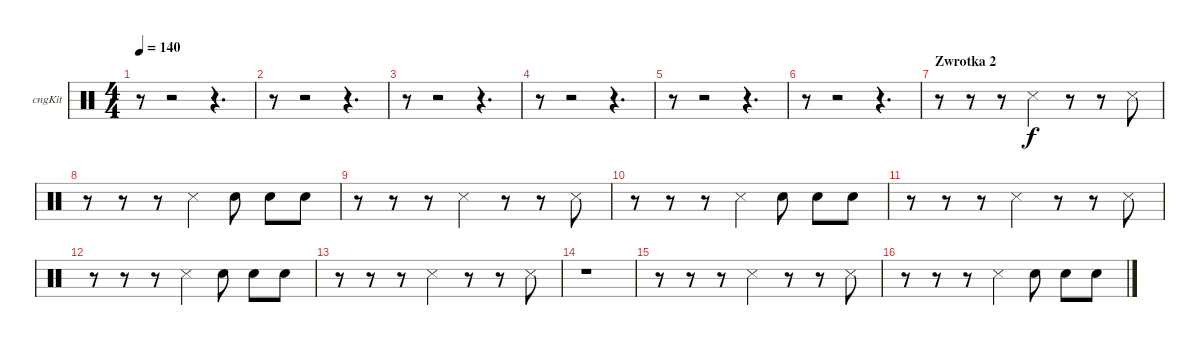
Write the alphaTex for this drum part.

\bracketExtendMode groupsimilarinstruments
\firstSystemTrackNameOrientation horizontal
\otherSystemsTrackNameOrientation horizontal
\track ("Congas" "cngKit") {instrument percussion}
\staff {score}
\articulation defaults
\ts (4 4)
\tempo 140
\clef neutral
\ks c
r.8{dy f} r.2 r.4{d} |
r.8 r.2 r.4{d} |
r.8 r.2 r.4{d} |
r.8 r.2 r.4{d} |
r.8 r.2 r.4{d} |
r.8 r.2 r.4{d} |
\section ("" "Zwrotka 2")
r.8 r.8 r.8 "Snare (side stick) 3".4 r.8 r.8 "Snare (side stick) 3".8 |
r.8 r.8 r.8 "Snare (side stick) 3".4 "Snare (hit) 2".8 "Snare (hit) 2".8 "Snare (hit) 2".8 |
r.8 r.8 r.8 "Snare (side stick) 3".4 r.8 r.8 "Snare (side stick) 3".8 |
r.8 r.8 r.8 "Snare (side stick) 3".4 "Snare (hit) 2".8 "Snare (hit) 2".8 "Snare (hit) 2".8 |
r.8 r.8 r.8 "Snare (side stick) 3".4 r.8 r.8 "Snare (side stick) 3".8 |
r.8 r.8 r.8 "Snare (side stick) 3".4 "Snare (hit) 2".8 "Snare (hit) 2".8 "Snare (hit) 2".8 |
r.8 r.8 r.8 "Snare (side stick) 3".4 r.8 r.8 "Snare (side stick) 3".8 |
r.1 |
r.8 r.8 r.8 "Snare (side stick) 3".4 r.8 r.8 "Snare (side stick) 3".8 |
r.8 r.8 r.8 "Snare (side stick) 3".4 "Snare (hit) 2".8 "Snare (hit) 2".8 "Snare (hit) 2".8
